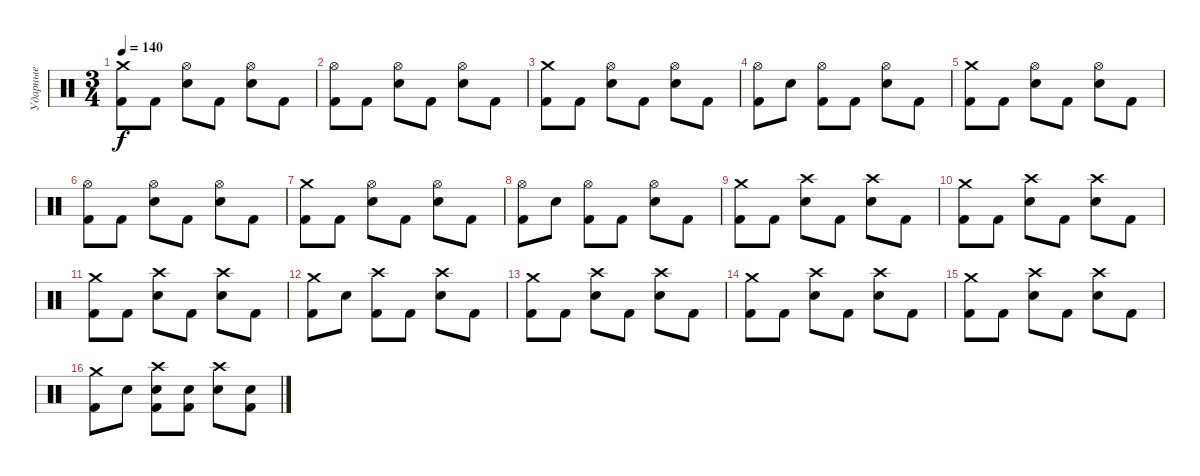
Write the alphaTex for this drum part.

\track ("Ударные" "Ударные") {instrument percussion}
\staff {score}
\articulation defaults
\ts (3 4)
\tempo 140
\clef neutral
\ks c
("Crash medium (hit)" "Kick (hit) 2").8{dy f} "Kick (hit) 2".8 ("Hi-Hat (open)" "Electric Snare (hit)").8 "Kick (hit) 2".8 ("Hi-Hat (open)" "Electric Snare (hit)").8 "Kick (hit) 2".8 |
("Hi-Hat (open)" "Kick (hit) 2").8 "Kick (hit) 2".8 ("Hi-Hat (open)" "Electric Snare (hit)").8 "Kick (hit) 2".8 ("Hi-Hat (open)" "Electric Snare (hit)").8 "Kick (hit) 2".8 |
("Crash medium (hit)" "Kick (hit) 2").8 "Kick (hit) 2".8 ("Hi-Hat (open)" "Electric Snare (hit)").8 "Kick (hit) 2".8 ("Hi-Hat (open)" "Electric Snare (hit)").8 "Kick (hit) 2".8 |
("Hi-Hat (open)" "Kick (hit) 2").8 "Electric Snare (hit)".8 ("Hi-Hat (open)" "Kick (hit) 2").8 "Kick (hit) 2".8 ("Hi-Hat (open)" "Electric Snare (hit)").8 "Kick (hit) 2".8 |
("Crash medium (hit)" "Kick (hit) 2").8 "Kick (hit) 2".8 ("Hi-Hat (open)" "Electric Snare (hit)").8 "Kick (hit) 2".8 ("Hi-Hat (open)" "Electric Snare (hit)").8 "Kick (hit) 2".8 |
("Hi-Hat (open)" "Kick (hit) 2").8 "Kick (hit) 2".8 ("Hi-Hat (open)" "Electric Snare (hit)").8 "Kick (hit) 2".8 ("Hi-Hat (open)" "Electric Snare (hit)").8 "Kick (hit) 2".8 |
("Crash medium (hit)" "Kick (hit) 2").8 "Kick (hit) 2".8 ("Hi-Hat (open)" "Electric Snare (hit)").8 "Kick (hit) 2".8 ("Hi-Hat (open)" "Electric Snare (hit)").8 "Kick (hit) 2".8 |
("Hi-Hat (open)" "Kick (hit) 2").8 "Electric Snare (hit)".8 ("Hi-Hat (open)" "Kick (hit) 2").8 "Kick (hit) 2".8 ("Hi-Hat (open)" "Electric Snare (hit)").8 "Kick (hit) 2".8 |
("Crash medium (hit)" "Kick (hit) 2").8 "Kick (hit) 2".8 ("Crash high (hit)" "Electric Snare (hit)").8 "Kick (hit) 2".8 ("Crash high (hit)" "Electric Snare (hit)").8 "Kick (hit) 2".8 |
("Crash medium (hit)" "Kick (hit) 2").8 "Kick (hit) 2".8 ("Crash high (hit)" "Electric Snare (hit)").8 "Kick (hit) 2".8 ("Crash high (hit)" "Electric Snare (hit)").8 "Kick (hit) 2".8 |
("Crash medium (hit)" "Kick (hit) 2").8 "Kick (hit) 2".8 ("Crash high (hit)" "Electric Snare (hit)").8 "Kick (hit) 2".8 ("Crash high (hit)" "Electric Snare (hit)").8 "Kick (hit) 2".8 |
("Crash medium (hit)" "Kick (hit) 2").8 "Electric Snare (hit)".8 ("Crash high (hit)" "Kick (hit) 2").8 "Kick (hit) 2".8 ("Crash high (hit)" "Electric Snare (hit)").8 "Kick (hit) 2".8 |
("Crash medium (hit)" "Kick (hit) 2").8 "Kick (hit) 2".8 ("Crash high (hit)" "Electric Snare (hit)").8 "Kick (hit) 2".8 ("Crash high (hit)" "Electric Snare (hit)").8 "Kick (hit) 2".8 |
("Crash medium (hit)" "Kick (hit) 2").8 "Kick (hit) 2".8 ("Crash high (hit)" "Electric Snare (hit)").8 "Kick (hit) 2".8 ("Crash high (hit)" "Electric Snare (hit)").8 "Kick (hit) 2".8 |
("Crash medium (hit)" "Kick (hit) 2").8 "Kick (hit) 2".8 ("Crash high (hit)" "Electric Snare (hit)").8 "Kick (hit) 2".8 ("Crash high (hit)" "Electric Snare (hit)").8 "Kick (hit) 2".8 |
("Crash medium (hit)" "Kick (hit) 2").8 "Electric Snare (hit)".8 ("Crash high (hit)" "Electric Snare (hit)" "Kick (hit) 2").8 ("Electric Snare (hit)" "Kick (hit) 2").8 ("Crash high (hit)" "Electric Snare (hit)").8 ("Electric Snare (hit)" "Kick (hit) 2").8
